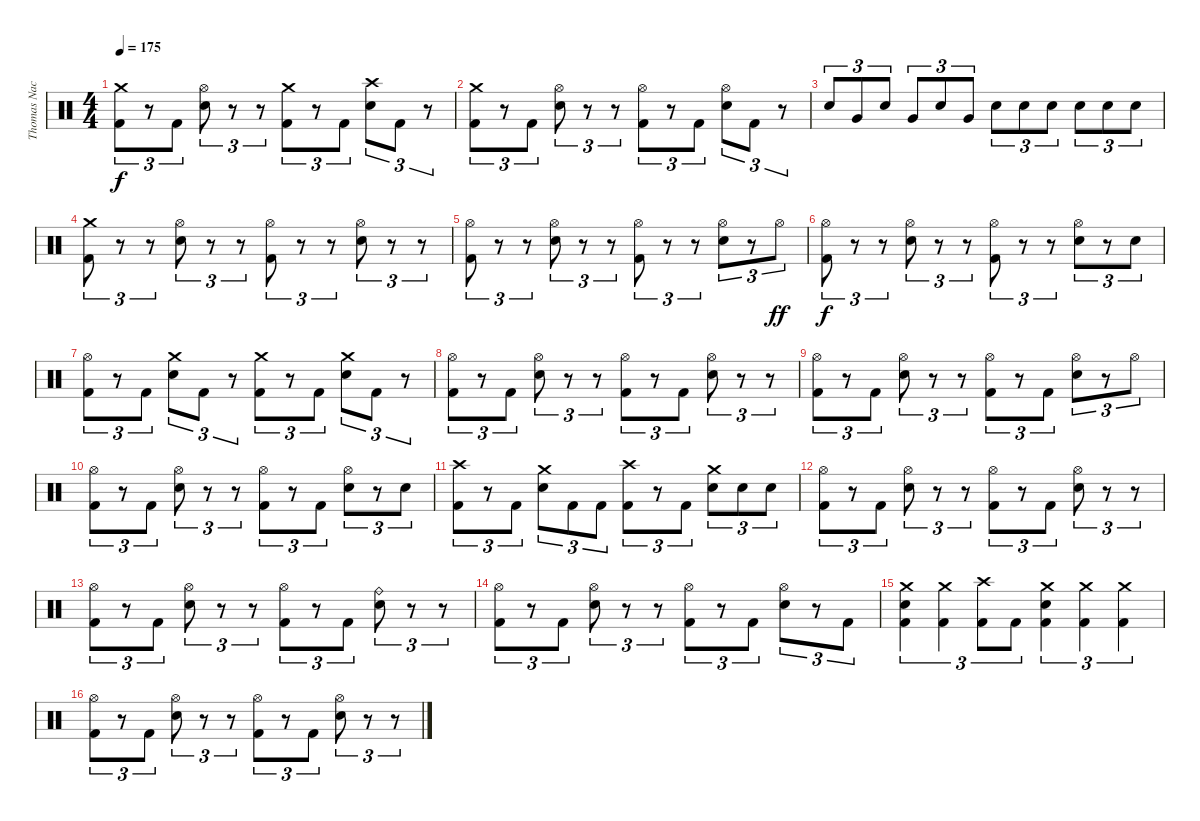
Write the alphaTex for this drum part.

\track ("Thomas Nack" "Thomas Nac") {instrument percussion}
\staff {score}
\articulation defaults
\ts (4 4)
\tempo 175
\clef neutral
\ks c
("Crash medium (hit)" "Kick (hit) 2").8{tu (3 2) dy f} r.8{tu (3 2)} "Kick (hit) 2".8{tu (3 2)} ("Hi-Hat (open)" "Electric Snare (hit)").8{tu (3 2)} r.8{tu (3 2)} r.8{tu (3 2)} ("Crash medium (hit)" "Kick (hit) 2").8{tu (3 2)} r.8{tu (3 2)} "Kick (hit) 2".8{tu (3 2)} ("Crash high (hit)" "Electric Snare (hit)").8{tu (3 2)} "Kick (hit) 2".8{tu (3 2)} r.8{tu (3 2)} |
("Crash medium (hit)" "Kick (hit) 2").8{tu (3 2)} r.8{tu (3 2)} "Kick (hit) 2".8{tu (3 2)} ("Hi-Hat (open)" "Electric Snare (hit)").8{tu (3 2)} r.8{tu (3 2)} r.8{tu (3 2)} ("Hi-Hat (open)" "Kick (hit) 2").8{tu (3 2)} r.8{tu (3 2)} "Kick (hit) 2".8{tu (3 2)} ("Hi-Hat (open)" "Electric Snare (hit)").8{tu (3 2)} "Kick (hit) 2".8{tu (3 2)} r.8{tu (3 2)} |
"Electric Snare (hit)".8{tu (3 2)} "Very Low Tom (hit)".8{tu (3 2)} "Electric Snare (hit)".8{tu (3 2)} "Very Low Tom (hit)".8{tu (3 2)} "Electric Snare (hit)".8{tu (3 2)} "Very Low Tom (hit)".8{tu (3 2)} "Electric Snare (hit)".8{tu (3 2)} "Electric Snare (hit)".8{tu (3 2)} "Electric Snare (hit)".8{tu (3 2)} "Electric Snare (hit)".8{tu (3 2)} "Electric Snare (hit)".8{tu (3 2)} "Electric Snare (hit)".8{tu (3 2)} |
("Crash medium (hit)" "Kick (hit) 2").8{tu (3 2)} r.8{tu (3 2)} r.8{tu (3 2)} ("Hi-Hat (open)" "Electric Snare (hit)").8{tu (3 2)} r.8{tu (3 2)} r.8{tu (3 2)} ("Hi-Hat (open)" "Kick (hit) 2").8{tu (3 2)} r.8{tu (3 2)} r.8{tu (3 2)} ("Hi-Hat (open)" "Electric Snare (hit)").8{tu (3 2)} r.8{tu (3 2)} r.8{tu (3 2)} |
("Hi-Hat (open)" "Kick (hit) 2").8{tu (3 2)} r.8{tu (3 2)} r.8{tu (3 2)} ("Hi-Hat (open)" "Electric Snare (hit)").8{tu (3 2)} r.8{tu (3 2)} r.8{tu (3 2)} ("Hi-Hat (open)" "Kick (hit) 2").8{tu (3 2)} r.8{tu (3 2)} r.8{tu (3 2)} ("Hi-Hat (open)" "Electric Snare (hit)").8{tu (3 2)} r.8{tu (3 2)} "Hi-Hat (open)".8{tu (3 2) dy ff} |
("Hi-Hat (open)" "Kick (hit) 2").8{tu (3 2) dy f} r.8{tu (3 2)} r.8{tu (3 2)} ("Hi-Hat (open)" "Electric Snare (hit)").8{tu (3 2)} r.8{tu (3 2)} r.8{tu (3 2)} ("Hi-Hat (open)" "Kick (hit) 2").8{tu (3 2)} r.8{tu (3 2)} r.8{tu (3 2)} ("Hi-Hat (open)" "Electric Snare (hit)").8{tu (3 2)} r.8{tu (3 2)} "Electric Snare (hit)".8{tu (3 2)} |
("Hi-Hat (open)" "Kick (hit) 2").8{tu (3 2)} r.8{tu (3 2)} "Kick (hit) 2".8{tu (3 2)} ("Crash medium (hit)" "Electric Snare (hit)").8{tu (3 2)} "Kick (hit) 2".8{tu (3 2)} r.8{tu (3 2)} ("Crash medium (hit)" "Kick (hit) 2").8{tu (3 2)} r.8{tu (3 2)} "Kick (hit) 2".8{tu (3 2)} ("Crash medium (hit)" "Electric Snare (hit)").8{tu (3 2)} "Kick (hit) 2".8{tu (3 2)} r.8{tu (3 2)} |
("Hi-Hat (open)" "Kick (hit) 2").8{tu (3 2)} r.8{tu (3 2)} "Kick (hit) 2".8{tu (3 2)} ("Hi-Hat (open)" "Electric Snare (hit)").8{tu (3 2)} r.8{tu (3 2)} r.8{tu (3 2)} ("Hi-Hat (open)" "Kick (hit) 2").8{tu (3 2)} r.8{tu (3 2)} "Kick (hit) 2".8{tu (3 2)} ("Hi-Hat (open)" "Electric Snare (hit)").8{tu (3 2)} r.8{tu (3 2)} r.8{tu (3 2)} |
("Hi-Hat (open)" "Kick (hit) 2").8{tu (3 2)} r.8{tu (3 2)} "Kick (hit) 2".8{tu (3 2)} ("Hi-Hat (open)" "Electric Snare (hit)").8{tu (3 2)} r.8{tu (3 2)} r.8{tu (3 2)} ("Hi-Hat (open)" "Kick (hit) 2").8{tu (3 2)} r.8{tu (3 2)} "Kick (hit) 2".8{tu (3 2)} ("Hi-Hat (open)" "Electric Snare (hit)").8{tu (3 2)} r.8{tu (3 2)} "Hi-Hat (open)".8{tu (3 2)} |
("Hi-Hat (open)" "Kick (hit) 2").8{tu (3 2)} r.8{tu (3 2)} "Kick (hit) 2".8{tu (3 2)} ("Hi-Hat (open)" "Electric Snare (hit)").8{tu (3 2)} r.8{tu (3 2)} r.8{tu (3 2)} ("Hi-Hat (open)" "Kick (hit) 2").8{tu (3 2)} r.8{tu (3 2)} "Kick (hit) 2".8{tu (3 2)} ("Hi-Hat (open)" "Electric Snare (hit)").8{tu (3 2)} r.8{tu (3 2)} "Electric Snare (hit)".8{tu (3 2)} |
("Crash high (hit)" "Kick (hit) 2").8{tu (3 2)} r.8{tu (3 2)} "Kick (hit) 2".8{tu (3 2)} ("Crash medium (hit)" "Electric Snare (hit)").8{tu (3 2)} "Kick (hit) 2".8{tu (3 2)} "Kick (hit) 2".8{tu (3 2)} ("Crash high (hit)" "Kick (hit) 2").8{tu (3 2)} r.8{tu (3 2)} "Kick (hit) 2".8{tu (3 2)} ("Crash medium (hit)" "Electric Snare (hit)").8{tu (3 2)} "Electric Snare (hit)".8{tu (3 2)} "Electric Snare (hit)".8{tu (3 2)} |
("Hi-Hat (open)" "Kick (hit) 2").8{tu (3 2)} r.8{tu (3 2)} "Kick (hit) 2".8{tu (3 2)} ("Hi-Hat (open)" "Electric Snare (hit)").8{tu (3 2)} r.8{tu (3 2)} r.8{tu (3 2)} ("Hi-Hat (open)" "Kick (hit) 2").8{tu (3 2)} r.8{tu (3 2)} "Kick (hit) 2".8{tu (3 2)} ("Hi-Hat (open)" "Electric Snare (hit)").8{tu (3 2)} r.8{tu (3 2)} r.8{tu (3 2)} |
("Hi-Hat (open)" "Kick (hit) 2").8{tu (3 2)} r.8{tu (3 2)} "Kick (hit) 2".8{tu (3 2)} ("Hi-Hat (open)" "Electric Snare (hit)").8{tu (3 2)} r.8{tu (3 2)} r.8{tu (3 2)} ("Hi-Hat (open)" "Kick (hit) 2").8{tu (3 2)} r.8{tu (3 2)} "Kick (hit) 2".8{tu (3 2)} ("Ride (bell)" "Electric Snare (hit)").8{tu (3 2)} r.8{tu (3 2)} r.8{tu (3 2)} |
("Hi-Hat (open)" "Kick (hit) 2").8{tu (3 2)} r.8{tu (3 2)} "Kick (hit) 2".8{tu (3 2)} ("Hi-Hat (open)" "Electric Snare (hit)").8{tu (3 2)} r.8{tu (3 2)} r.8{tu (3 2)} ("Hi-Hat (open)" "Kick (hit) 2").8{tu (3 2)} r.8{tu (3 2)} "Kick (hit) 2".8{tu (3 2)} ("Hi-Hat (open)" "Electric Snare (hit)").8{tu (3 2)} r.8{tu (3 2)} "Kick (hit) 2".8{tu (3 2)} |
("Crash medium (hit)" "Electric Snare (hit)" "Kick (hit) 2").4{tu (3 2)} ("Crash medium (hit)" "Kick (hit) 2").4{tu (3 2)} ("Crash high (hit)" "Kick (hit) 2").8{tu (3 2)} "Kick (hit) 2".8{tu (3 2)} ("Crash medium (hit)" "Electric Snare (hit)" "Kick (hit) 2").4{tu (3 2)} ("Crash medium (hit)" "Kick (hit) 2").4{tu (3 2)} ("Crash medium (hit)" "Kick (hit) 2").4{tu (3 2)} |
("Hi-Hat (open)" "Kick (hit) 2").8{tu (3 2)} r.8{tu (3 2)} "Kick (hit) 2".8{tu (3 2)} ("Hi-Hat (open)" "Electric Snare (hit)").8{tu (3 2)} r.8{tu (3 2)} r.8{tu (3 2)} ("Hi-Hat (open)" "Kick (hit) 2").8{tu (3 2)} r.8{tu (3 2)} "Kick (hit) 2".8{tu (3 2)} ("Hi-Hat (open)" "Electric Snare (hit)").8{tu (3 2)} r.8{tu (3 2)} r.8{tu (3 2)}
